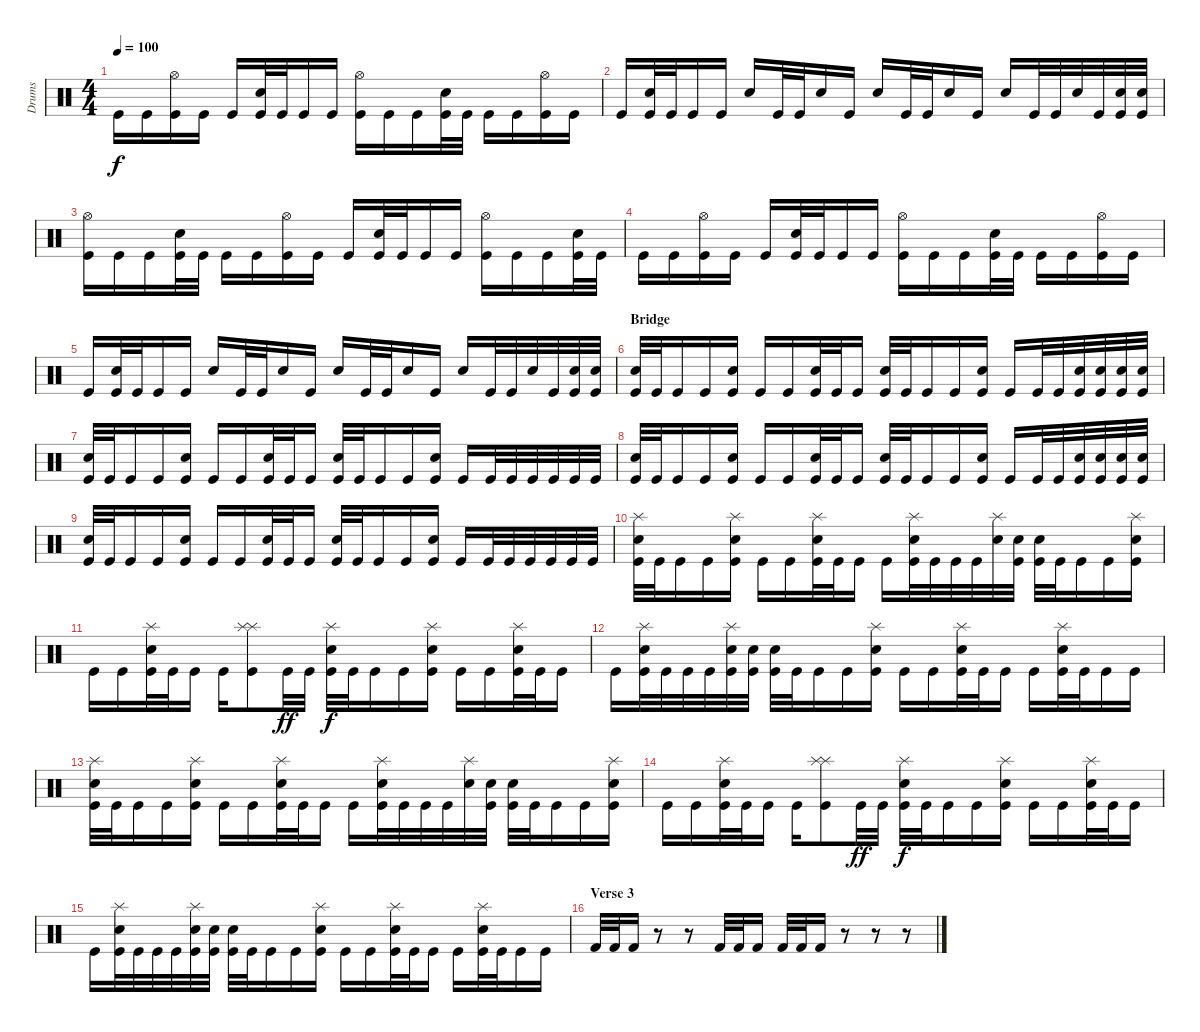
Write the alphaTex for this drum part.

\track ("Drums" "Drums") {instrument percussion}
\staff {score}
\articulation defaults
\ts (4 4)
\tempo 100
\clef neutral
\ks c "Kick (hit)".16{dy f} "Kick (hit)".16
("Hi-Hat (open)" "Kick (hit)").16 "Kick (hit)".16 "Kick (hit)".16 ("Electric Snare (hit)" "Kick (hit)").32 "Kick (hit)".32 "Kick (hit)".16 "Kick (hit)".16 ("Hi-Hat (open)" "Kick (hit)").16 "Kick (hit)".16 "Kick (hit)".16 ("Electric Snare (hit)" "Kick (hit)").32 "Kick (hit)".32 "Kick (hit)".16 "Kick (hit)".16 ("Hi-Hat (open)" "Kick (hit)").16 "Kick (hit)".16 |
"Kick (hit)".16 ("Electric Snare (hit)" "Kick (hit)").32 "Kick (hit)".32 "Kick (hit)".16 "Kick (hit)".16 "Electric Snare (hit)".16 "Kick (hit)".32 "Kick (hit)".32 "Electric Snare (hit)".16 "Kick (hit)".16 "Electric Snare (hit)".16 "Kick (hit)".32 "Kick (hit)".32 "Electric Snare (hit)".16 "Kick (hit)".16 "Electric Snare (hit)".16 "Kick (hit)".32 "Kick (hit)".32 "Electric Snare (hit)".32 "Kick (hit)".32 ("Electric Snare (hit)" "Kick (hit)").32 ("Electric Snare (hit)" "Kick (hit)").32 |
("Hi-Hat (open)" "Kick (hit)").16 "Kick (hit)".16 "Kick (hit)".16 ("Electric Snare (hit)" "Kick (hit)").32 "Kick (hit)".32 "Kick (hit)".16 "Kick (hit)".16 ("Hi-Hat (open)" "Kick (hit)").16 "Kick (hit)".16 "Kick (hit)".16 ("Electric Snare (hit)" "Kick (hit)").32 "Kick (hit)".32 "Kick (hit)".16 "Kick (hit)".16 ("Hi-Hat (open)" "Kick (hit)").16 "Kick (hit)".16 "Kick (hit)".16 ("Electric Snare (hit)" "Kick (hit)").32 "Kick (hit)".32 |
"Kick (hit)".16 "Kick (hit)".16 ("Hi-Hat (open)" "Kick (hit)").16 "Kick (hit)".16 "Kick (hit)".16 ("Electric Snare (hit)" "Kick (hit)").32 "Kick (hit)".32 "Kick (hit)".16 "Kick (hit)".16 ("Hi-Hat (open)" "Kick (hit)").16 "Kick (hit)".16 "Kick (hit)".16 ("Electric Snare (hit)" "Kick (hit)").32 "Kick (hit)".32 "Kick (hit)".16 "Kick (hit)".16 ("Hi-Hat (open)" "Kick (hit)").16 "Kick (hit)".16 |
"Kick (hit)".16 ("Electric Snare (hit)" "Kick (hit)").32 "Kick (hit)".32 "Kick (hit)".16 "Kick (hit)".16 "Electric Snare (hit)".16 "Kick (hit)".32 "Kick (hit)".32 "Electric Snare (hit)".16 "Kick (hit)".16 "Electric Snare (hit)".16 "Kick (hit)".32 "Kick (hit)".32 "Electric Snare (hit)".16 "Kick (hit)".16 "Electric Snare (hit)".16 "Kick (hit)".32 "Kick (hit)".32 "Electric Snare (hit)".32 "Kick (hit)".32 ("Electric Snare (hit)" "Kick (hit)").32 ("Electric Snare (hit)" "Kick (hit)").32 |
\section ("" "Bridge")
("Electric Snare (hit)" "Kick (hit)").32 "Kick (hit)".32 "Kick (hit)".16 "Kick (hit)".16 ("Electric Snare (hit)" "Kick (hit)").16 "Kick (hit)".16 "Kick (hit)".16 ("Electric Snare (hit)" "Kick (hit)").32 "Kick (hit)".32 "Kick (hit)".16 ("Electric Snare (hit)" "Kick (hit)").32 "Kick (hit)".32 "Kick (hit)".16 "Kick (hit)".16 ("Electric Snare (hit)" "Kick (hit)").16 "Kick (hit)".16 "Kick (hit)".32 "Kick (hit)".32 ("Electric Snare (hit)" "Kick (hit)").32 ("Electric Snare (hit)" "Kick (hit)").32 ("Electric Snare (hit)" "Kick (hit)").32 ("Electric Snare (hit)" "Kick (hit)").32 |
("Electric Snare (hit)" "Kick (hit)").32 "Kick (hit)".32 "Kick (hit)".16 "Kick (hit)".16 ("Electric Snare (hit)" "Kick (hit)").16 "Kick (hit)".16 "Kick (hit)".16 ("Electric Snare (hit)" "Kick (hit)").32 "Kick (hit)".32 "Kick (hit)".16 ("Electric Snare (hit)" "Kick (hit)").32 "Kick (hit)".32 "Kick (hit)".16 "Kick (hit)".16 ("Electric Snare (hit)" "Kick (hit)").16 "Kick (hit)".16 "Kick (hit)".32 "Kick (hit)".32 "Kick (hit)".32 "Kick (hit)".32 "Kick (hit)".32 "Kick (hit)".32 |
("Electric Snare (hit)" "Kick (hit)").32 "Kick (hit)".32 "Kick (hit)".16 "Kick (hit)".16 ("Electric Snare (hit)" "Kick (hit)").16 "Kick (hit)".16 "Kick (hit)".16 ("Electric Snare (hit)" "Kick (hit)").32 "Kick (hit)".32 "Kick (hit)".16 ("Electric Snare (hit)" "Kick (hit)").32 "Kick (hit)".32 "Kick (hit)".16 "Kick (hit)".16 ("Electric Snare (hit)" "Kick (hit)").16 "Kick (hit)".16 "Kick (hit)".32 "Kick (hit)".32 ("Electric Snare (hit)" "Kick (hit)").32 ("Electric Snare (hit)" "Kick (hit)").32 ("Electric Snare (hit)" "Kick (hit)").32 ("Electric Snare (hit)" "Kick (hit)").32 |
("Electric Snare (hit)" "Kick (hit)").32 "Kick (hit)".32 "Kick (hit)".16 "Kick (hit)".16 ("Electric Snare (hit)" "Kick (hit)").16 "Kick (hit)".16 "Kick (hit)".16 ("Electric Snare (hit)" "Kick (hit)").32 "Kick (hit)".32 "Kick (hit)".16 ("Electric Snare (hit)" "Kick (hit)").32 "Kick (hit)".32 "Kick (hit)".16 "Kick (hit)".16 ("Electric Snare (hit)" "Kick (hit)").16 "Kick (hit)".16 "Kick (hit)".32 "Kick (hit)".32 "Kick (hit)".32 "Kick (hit)".32 "Kick (hit)".32 "Kick (hit)".32 |
("Splash (hit)" "Electric Snare (hit)" "Kick (hit)").32 "Kick (hit)".32 "Kick (hit)".16 "Kick (hit)".16 ("Splash (hit)" "Electric Snare (hit)" "Kick (hit)").16 "Kick (hit)".16 "Kick (hit)".16 ("Splash (hit)" "Electric Snare (hit)" "Kick (hit)").32 "Kick (hit)".32 "Kick (hit)".16 "Kick (hit)".16 ("Splash (hit)" "Electric Snare (hit)" "Kick (hit)").32 "Kick (hit)".32 "Kick (hit)".32 "Kick (hit)".32 ("Splash (hit)" "Electric Snare (hit)").32 ("Electric Snare (hit)" "Kick (hit)").32 ("Electric Snare (hit)" "Kick (hit)").32 "Kick (hit)".32 "Kick (hit)".16 "Kick (hit)".16 ("Splash (hit)" "Electric Snare (hit)" "Kick (hit)").16 |
"Kick (hit)".16 "Kick (hit)".16 ("Splash (hit)" "Electric Snare (hit)" "Kick (hit)").32 "Kick (hit)".32 "Kick (hit)".16 "Kick (hit)".16 ("Splash (hit)" "Splash (hit)" "Kick (hit)").8 "Kick (hit)".32{dy ff} "Kick (hit)".32 ("Splash (hit)" "Electric Snare (hit)" "Kick (hit)").32{dy f} "Kick (hit)".32 "Kick (hit)".16 "Kick (hit)".16 ("Splash (hit)" "Electric Snare (hit)" "Kick (hit)").16 "Kick (hit)".16 "Kick (hit)".16 ("Splash (hit)" "Electric Snare (hit)" "Kick (hit)").32 "Kick (hit)".32 "Kick (hit)".16 |
"Kick (hit)".16 ("Splash (hit)" "Electric Snare (hit)" "Kick (hit)").32 "Kick (hit)".32 "Kick (hit)".32 "Kick (hit)".32 ("Splash (hit)" "Electric Snare (hit)" "Kick (hit)").32 ("Electric Snare (hit)" "Kick (hit)").32 ("Electric Snare (hit)" "Kick (hit)").32 "Kick (hit)".32 "Kick (hit)".16 "Kick (hit)".16 ("Splash (hit)" "Electric Snare (hit)" "Kick (hit)").16 "Kick (hit)".16 "Kick (hit)".16 ("Splash (hit)" "Electric Snare (hit)" "Kick (hit)").32 "Kick (hit)".32 "Kick (hit)".16 "Kick (hit)".16 ("Splash (hit)" "Electric Snare (hit)" "Kick (hit)").32 "Kick (hit)".32 "Kick (hit)".16 "Kick (hit)".16 |
("Splash (hit)" "Electric Snare (hit)" "Kick (hit)").32 "Kick (hit)".32 "Kick (hit)".16 "Kick (hit)".16 ("Splash (hit)" "Electric Snare (hit)" "Kick (hit)").16 "Kick (hit)".16 "Kick (hit)".16 ("Splash (hit)" "Electric Snare (hit)" "Kick (hit)").32 "Kick (hit)".32 "Kick (hit)".16 "Kick (hit)".16 ("Splash (hit)" "Electric Snare (hit)" "Kick (hit)").32 "Kick (hit)".32 "Kick (hit)".32 "Kick (hit)".32 ("Splash (hit)" "Electric Snare (hit)").32 ("Electric Snare (hit)" "Kick (hit)").32 ("Electric Snare (hit)" "Kick (hit)").32 "Kick (hit)".32 "Kick (hit)".16 "Kick (hit)".16 ("Splash (hit)" "Electric Snare (hit)" "Kick (hit)").16 |
"Kick (hit)".16 "Kick (hit)".16 ("Splash (hit)" "Electric Snare (hit)" "Kick (hit)").32 "Kick (hit)".32 "Kick (hit)".16 "Kick (hit)".16 ("Splash (hit)" "Splash (hit)" "Kick (hit)").8 "Kick (hit)".32{dy ff} "Kick (hit)".32 ("Splash (hit)" "Electric Snare (hit)" "Kick (hit)").32{dy f} "Kick (hit)".32 "Kick (hit)".16 "Kick (hit)".16 ("Splash (hit)" "Electric Snare (hit)" "Kick (hit)").16 "Kick (hit)".16 "Kick (hit)".16 ("Splash (hit)" "Electric Snare (hit)" "Kick (hit)").32 "Kick (hit)".32 "Kick (hit)".16 |
"Kick (hit)".16 ("Splash (hit)" "Electric Snare (hit)" "Kick (hit)").32 "Kick (hit)".32 "Kick (hit)".32 "Kick (hit)".32 ("Splash (hit)" "Electric Snare (hit)" "Kick (hit)").32 ("Electric Snare (hit)" "Kick (hit)").32 ("Electric Snare (hit)" "Kick (hit)").32 "Kick (hit)".32 "Kick (hit)".16 "Kick (hit)".16 ("Splash (hit)" "Electric Snare (hit)" "Kick (hit)").16 "Kick (hit)".16 "Kick (hit)".16 ("Splash (hit)" "Electric Snare (hit)" "Kick (hit)").32 "Kick (hit)".32 "Kick (hit)".16 "Kick (hit)".16 ("Splash (hit)" "Electric Snare (hit)" "Kick (hit)").32 "Kick (hit)".32 "Kick (hit)".16 "Kick (hit)".16 |
\section ("" "Verse 3")
"Kick (hit) 2".32 "Kick (hit) 2".32 "Kick (hit) 2".16 r.8 r.8 "Kick (hit) 2".32 "Kick (hit) 2".32 "Kick (hit) 2".16 "Kick (hit) 2".32 "Kick (hit) 2".32 "Kick (hit) 2".16 r.8 r.8 r.8
